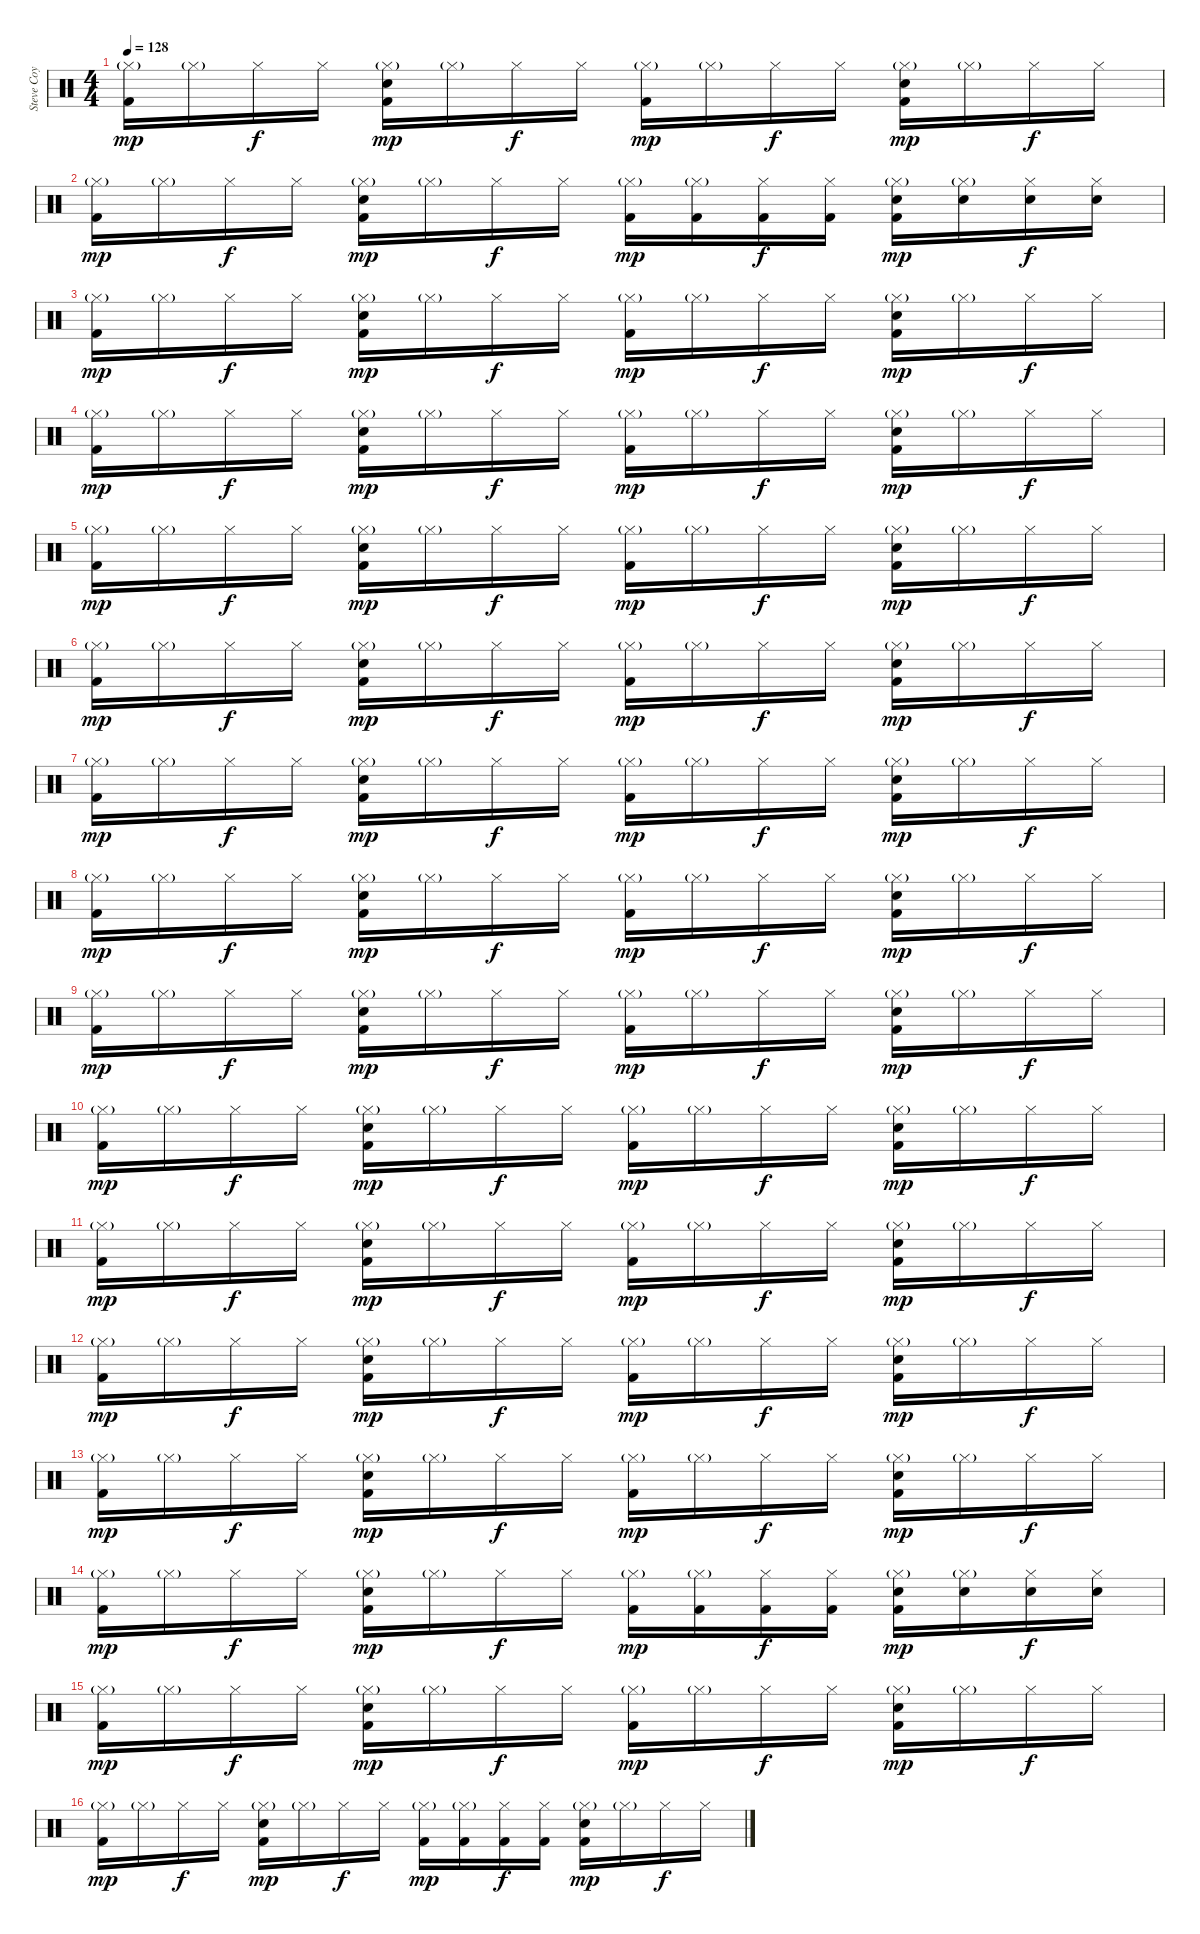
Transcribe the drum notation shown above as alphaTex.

\track ("Steve Coy" "Steve Coy") {instrument percussion}
\staff {score}
\articulation defaults
\ts (4 4)
\tempo 128
\clef neutral
\ks c
("Hi-Hat (closed)"{g} "Kick (hit) 2").16{dy mp} "Hi-Hat (closed)"{g}.16 "Hi-Hat (closed)".16{dy f} "Hi-Hat (closed)".16 ("Hi-Hat (closed)"{g} "Snare (hit) 2" "Kick (hit) 2").16{dy mp} "Hi-Hat (closed)"{g}.16 "Hi-Hat (closed)".16{dy f} "Hi-Hat (closed)".16 ("Hi-Hat (closed)"{g} "Kick (hit) 2").16{dy mp} "Hi-Hat (closed)"{g}.16 "Hi-Hat (closed)".16{dy f} "Hi-Hat (closed)".16 ("Hi-Hat (closed)"{g} "Snare (hit) 2" "Kick (hit) 2").16{dy mp} "Hi-Hat (closed)"{g}.16 "Hi-Hat (closed)".16{dy f} "Hi-Hat (closed)".16 |
("Hi-Hat (closed)"{g} "Kick (hit) 2").16{dy mp} "Hi-Hat (closed)"{g}.16 "Hi-Hat (closed)".16{dy f} "Hi-Hat (closed)".16 ("Hi-Hat (closed)"{g} "Snare (hit) 2" "Kick (hit) 2").16{dy mp} "Hi-Hat (closed)"{g}.16 "Hi-Hat (closed)".16{dy f} "Hi-Hat (closed)".16 ("Hi-Hat (closed)"{g} "Kick (hit) 2").16{dy mp} ("Hi-Hat (closed)"{g} "Kick (hit) 2").16 ("Hi-Hat (closed)" "Kick (hit) 2").16{dy f} ("Hi-Hat (closed)" "Kick (hit) 2").16 ("Hi-Hat (closed)"{g} "Snare (hit) 2" "Kick (hit) 2").16{dy mp} ("Hi-Hat (closed)"{g} "Snare (hit) 2").16 ("Hi-Hat (closed)" "Snare (hit) 2").16{dy f} ("Hi-Hat (closed)" "Snare (hit) 2").16 |
("Hi-Hat (closed)"{g} "Kick (hit) 2").16{dy mp} "Hi-Hat (closed)"{g}.16 "Hi-Hat (closed)".16{dy f} "Hi-Hat (closed)".16 ("Hi-Hat (closed)"{g} "Snare (hit) 2" "Kick (hit) 2").16{dy mp} "Hi-Hat (closed)"{g}.16 "Hi-Hat (closed)".16{dy f} "Hi-Hat (closed)".16 ("Hi-Hat (closed)"{g} "Kick (hit) 2").16{dy mp} "Hi-Hat (closed)"{g}.16 "Hi-Hat (closed)".16{dy f} "Hi-Hat (closed)".16 ("Hi-Hat (closed)"{g} "Snare (hit) 2" "Kick (hit) 2").16{dy mp} "Hi-Hat (closed)"{g}.16 "Hi-Hat (closed)".16{dy f} "Hi-Hat (closed)".16 |
("Hi-Hat (closed)"{g} "Kick (hit) 2").16{dy mp} "Hi-Hat (closed)"{g}.16 "Hi-Hat (closed)".16{dy f} "Hi-Hat (closed)".16 ("Hi-Hat (closed)"{g} "Snare (hit) 2" "Kick (hit) 2").16{dy mp} "Hi-Hat (closed)"{g}.16 "Hi-Hat (closed)".16{dy f} "Hi-Hat (closed)".16 ("Hi-Hat (closed)"{g} "Kick (hit) 2").16{dy mp} "Hi-Hat (closed)"{g}.16 "Hi-Hat (closed)".16{dy f} "Hi-Hat (closed)".16 ("Hi-Hat (closed)"{g} "Snare (hit) 2" "Kick (hit) 2").16{dy mp} "Hi-Hat (closed)"{g}.16 "Hi-Hat (closed)".16{dy f} "Hi-Hat (closed)".16 |
("Hi-Hat (closed)"{g} "Kick (hit) 2").16{dy mp} "Hi-Hat (closed)"{g}.16 "Hi-Hat (closed)".16{dy f} "Hi-Hat (closed)".16 ("Hi-Hat (closed)"{g} "Snare (hit) 2" "Kick (hit) 2").16{dy mp} "Hi-Hat (closed)"{g}.16 "Hi-Hat (closed)".16{dy f} "Hi-Hat (closed)".16 ("Hi-Hat (closed)"{g} "Kick (hit) 2").16{dy mp} "Hi-Hat (closed)"{g}.16 "Hi-Hat (closed)".16{dy f} "Hi-Hat (closed)".16 ("Hi-Hat (closed)"{g} "Snare (hit) 2" "Kick (hit) 2").16{dy mp} "Hi-Hat (closed)"{g}.16 "Hi-Hat (closed)".16{dy f} "Hi-Hat (closed)".16 |
("Hi-Hat (closed)"{g} "Kick (hit) 2").16{dy mp} "Hi-Hat (closed)"{g}.16 "Hi-Hat (closed)".16{dy f} "Hi-Hat (closed)".16 ("Hi-Hat (closed)"{g} "Snare (hit) 2" "Kick (hit) 2").16{dy mp} "Hi-Hat (closed)"{g}.16 "Hi-Hat (closed)".16{dy f} "Hi-Hat (closed)".16 ("Hi-Hat (closed)"{g} "Kick (hit) 2").16{dy mp} "Hi-Hat (closed)"{g}.16 "Hi-Hat (closed)".16{dy f} "Hi-Hat (closed)".16 ("Hi-Hat (closed)"{g} "Snare (hit) 2" "Kick (hit) 2").16{dy mp} "Hi-Hat (closed)"{g}.16 "Hi-Hat (closed)".16{dy f} "Hi-Hat (closed)".16 |
("Hi-Hat (closed)"{g} "Kick (hit) 2").16{dy mp} "Hi-Hat (closed)"{g}.16 "Hi-Hat (closed)".16{dy f} "Hi-Hat (closed)".16 ("Hi-Hat (closed)"{g} "Snare (hit) 2" "Kick (hit) 2").16{dy mp} "Hi-Hat (closed)"{g}.16 "Hi-Hat (closed)".16{dy f} "Hi-Hat (closed)".16 ("Hi-Hat (closed)"{g} "Kick (hit) 2").16{dy mp} "Hi-Hat (closed)"{g}.16 "Hi-Hat (closed)".16{dy f} "Hi-Hat (closed)".16 ("Hi-Hat (closed)"{g} "Snare (hit) 2" "Kick (hit) 2").16{dy mp} "Hi-Hat (closed)"{g}.16 "Hi-Hat (closed)".16{dy f} "Hi-Hat (closed)".16 |
("Hi-Hat (closed)"{g} "Kick (hit) 2").16{dy mp} "Hi-Hat (closed)"{g}.16 "Hi-Hat (closed)".16{dy f} "Hi-Hat (closed)".16 ("Hi-Hat (closed)"{g} "Snare (hit) 2" "Kick (hit) 2").16{dy mp} "Hi-Hat (closed)"{g}.16 "Hi-Hat (closed)".16{dy f} "Hi-Hat (closed)".16 ("Hi-Hat (closed)"{g} "Kick (hit) 2").16{dy mp} "Hi-Hat (closed)"{g}.16 "Hi-Hat (closed)".16{dy f} "Hi-Hat (closed)".16 ("Hi-Hat (closed)"{g} "Snare (hit) 2" "Kick (hit) 2").16{dy mp} "Hi-Hat (closed)"{g}.16 "Hi-Hat (closed)".16{dy f} "Hi-Hat (closed)".16 |
("Hi-Hat (closed)"{g} "Kick (hit) 2").16{dy mp} "Hi-Hat (closed)"{g}.16 "Hi-Hat (closed)".16{dy f} "Hi-Hat (closed)".16 ("Hi-Hat (closed)"{g} "Snare (hit) 2" "Kick (hit) 2").16{dy mp} "Hi-Hat (closed)"{g}.16 "Hi-Hat (closed)".16{dy f} "Hi-Hat (closed)".16 ("Hi-Hat (closed)"{g} "Kick (hit) 2").16{dy mp} "Hi-Hat (closed)"{g}.16 "Hi-Hat (closed)".16{dy f} "Hi-Hat (closed)".16 ("Hi-Hat (closed)"{g} "Snare (hit) 2" "Kick (hit) 2").16{dy mp} "Hi-Hat (closed)"{g}.16 "Hi-Hat (closed)".16{dy f} "Hi-Hat (closed)".16 |
("Hi-Hat (closed)"{g} "Kick (hit) 2").16{dy mp} "Hi-Hat (closed)"{g}.16 "Hi-Hat (closed)".16{dy f} "Hi-Hat (closed)".16 ("Hi-Hat (closed)"{g} "Snare (hit) 2" "Kick (hit) 2").16{dy mp} "Hi-Hat (closed)"{g}.16 "Hi-Hat (closed)".16{dy f} "Hi-Hat (closed)".16 ("Hi-Hat (closed)"{g} "Kick (hit) 2").16{dy mp} "Hi-Hat (closed)"{g}.16 "Hi-Hat (closed)".16{dy f} "Hi-Hat (closed)".16 ("Hi-Hat (closed)"{g} "Snare (hit) 2" "Kick (hit) 2").16{dy mp} "Hi-Hat (closed)"{g}.16 "Hi-Hat (closed)".16{dy f} "Hi-Hat (closed)".16 |
("Hi-Hat (closed)"{g} "Kick (hit) 2").16{dy mp} "Hi-Hat (closed)"{g}.16 "Hi-Hat (closed)".16{dy f} "Hi-Hat (closed)".16 ("Hi-Hat (closed)"{g} "Snare (hit) 2" "Kick (hit) 2").16{dy mp} "Hi-Hat (closed)"{g}.16 "Hi-Hat (closed)".16{dy f} "Hi-Hat (closed)".16 ("Hi-Hat (closed)"{g} "Kick (hit) 2").16{dy mp} "Hi-Hat (closed)"{g}.16 "Hi-Hat (closed)".16{dy f} "Hi-Hat (closed)".16 ("Hi-Hat (closed)"{g} "Snare (hit) 2" "Kick (hit) 2").16{dy mp} "Hi-Hat (closed)"{g}.16 "Hi-Hat (closed)".16{dy f} "Hi-Hat (closed)".16 |
("Hi-Hat (closed)"{g} "Kick (hit) 2").16{dy mp} "Hi-Hat (closed)"{g}.16 "Hi-Hat (closed)".16{dy f} "Hi-Hat (closed)".16 ("Hi-Hat (closed)"{g} "Snare (hit) 2" "Kick (hit) 2").16{dy mp} "Hi-Hat (closed)"{g}.16 "Hi-Hat (closed)".16{dy f} "Hi-Hat (closed)".16 ("Hi-Hat (closed)"{g} "Kick (hit) 2").16{dy mp} "Hi-Hat (closed)"{g}.16 "Hi-Hat (closed)".16{dy f} "Hi-Hat (closed)".16 ("Hi-Hat (closed)"{g} "Snare (hit) 2" "Kick (hit) 2").16{dy mp} "Hi-Hat (closed)"{g}.16 "Hi-Hat (closed)".16{dy f} "Hi-Hat (closed)".16 |
("Hi-Hat (closed)"{g} "Kick (hit) 2").16{dy mp} "Hi-Hat (closed)"{g}.16 "Hi-Hat (closed)".16{dy f} "Hi-Hat (closed)".16 ("Hi-Hat (closed)"{g} "Snare (hit) 2" "Kick (hit) 2").16{dy mp} "Hi-Hat (closed)"{g}.16 "Hi-Hat (closed)".16{dy f} "Hi-Hat (closed)".16 ("Hi-Hat (closed)"{g} "Kick (hit) 2").16{dy mp} "Hi-Hat (closed)"{g}.16 "Hi-Hat (closed)".16{dy f} "Hi-Hat (closed)".16 ("Hi-Hat (closed)"{g} "Snare (hit) 2" "Kick (hit) 2").16{dy mp} "Hi-Hat (closed)"{g}.16 "Hi-Hat (closed)".16{dy f} "Hi-Hat (closed)".16 |
("Hi-Hat (closed)"{g} "Kick (hit) 2").16{dy mp} "Hi-Hat (closed)"{g}.16 "Hi-Hat (closed)".16{dy f} "Hi-Hat (closed)".16 ("Hi-Hat (closed)"{g} "Snare (hit) 2" "Kick (hit) 2").16{dy mp} "Hi-Hat (closed)"{g}.16 "Hi-Hat (closed)".16{dy f} "Hi-Hat (closed)".16 ("Hi-Hat (closed)"{g} "Kick (hit) 2").16{dy mp} ("Hi-Hat (closed)"{g} "Kick (hit) 2").16 ("Hi-Hat (closed)" "Kick (hit) 2").16{dy f} ("Hi-Hat (closed)" "Kick (hit) 2").16 ("Hi-Hat (closed)"{g} "Snare (hit) 2" "Kick (hit) 2").16{dy mp} ("Hi-Hat (closed)"{g} "Snare (hit) 2").16 ("Hi-Hat (closed)" "Snare (hit) 2").16{dy f} ("Hi-Hat (closed)" "Snare (hit) 2").16 |
("Hi-Hat (closed)"{g} "Kick (hit) 2").16{dy mp} "Hi-Hat (closed)"{g}.16 "Hi-Hat (closed)".16{dy f} "Hi-Hat (closed)".16 ("Hi-Hat (closed)"{g} "Snare (hit) 2" "Kick (hit) 2").16{dy mp} "Hi-Hat (closed)"{g}.16 "Hi-Hat (closed)".16{dy f} "Hi-Hat (closed)".16 ("Hi-Hat (closed)"{g} "Kick (hit) 2").16{dy mp} "Hi-Hat (closed)"{g}.16 "Hi-Hat (closed)".16{dy f} "Hi-Hat (closed)".16 ("Hi-Hat (closed)"{g} "Snare (hit) 2" "Kick (hit) 2").16{dy mp} "Hi-Hat (closed)"{g}.16 "Hi-Hat (closed)".16{dy f} "Hi-Hat (closed)".16 |
("Hi-Hat (closed)"{g} "Kick (hit) 2").16{dy mp} "Hi-Hat (closed)"{g}.16 "Hi-Hat (closed)".16{dy f} "Hi-Hat (closed)".16 ("Hi-Hat (closed)"{g} "Snare (hit) 2" "Kick (hit) 2").16{dy mp} "Hi-Hat (closed)"{g}.16 "Hi-Hat (closed)".16{dy f} "Hi-Hat (closed)".16 ("Hi-Hat (closed)"{g} "Kick (hit) 2").16{dy mp} ("Hi-Hat (closed)"{g} "Kick (hit) 2").16 ("Hi-Hat (closed)" "Kick (hit) 2").16{dy f} ("Hi-Hat (closed)" "Kick (hit) 2").16 ("Hi-Hat (closed)"{g} "Snare (hit) 2" "Kick (hit) 2").16{dy mp} "Hi-Hat (closed)"{g}.16 "Hi-Hat (closed)".16{dy f} "Hi-Hat (closed)".16
